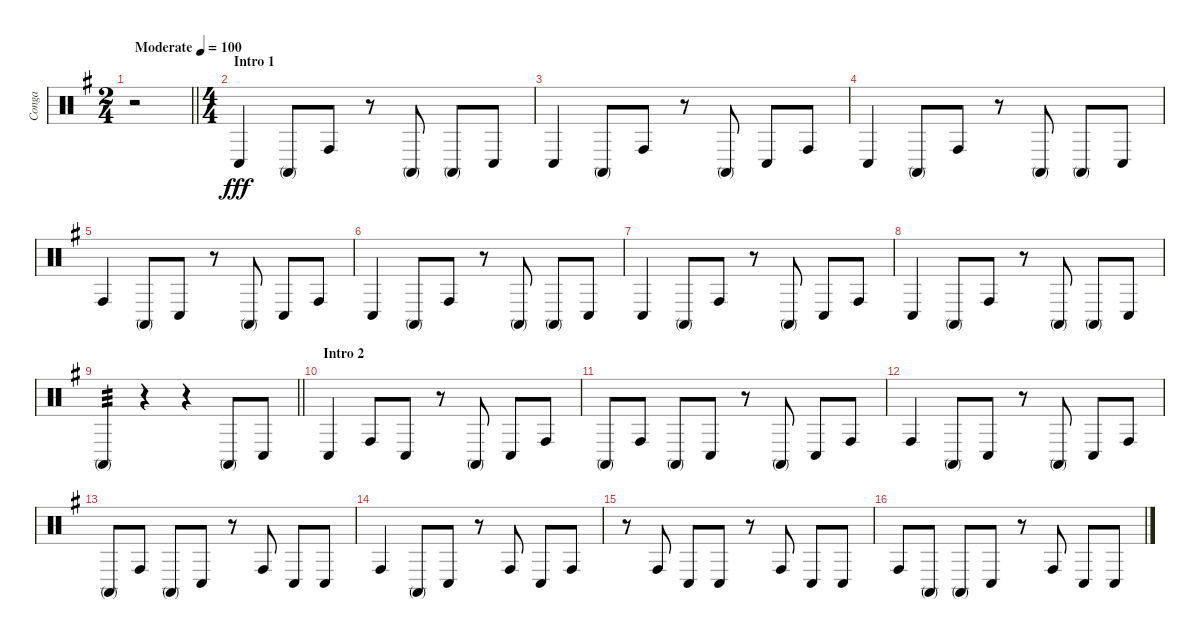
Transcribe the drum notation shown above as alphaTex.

\track ("Conga" "Conga") {instrument percussion}
\staff {score}
\articulation defaults
\ts (2 4)
\tempo (100 "Moderate")
\clef neutral
\barLineRight lightlight
\ks g
r.2{dy fff} |
\ts (4 4)
\section ("" "Intro 1")
"Conga low (hit)".4 "Conga high (mute)".8 "Conga high (hit)".8 r.8 "Conga high (mute)".8 "Conga high (mute)".8 "Conga low (hit)".8 |
"Conga low (hit)".4 "Conga high (mute)".8 "Conga high (hit)".8 r.8 "Conga high (mute)".8 "Conga low (hit)".8 "Conga high (hit)".8 |
"Conga low (hit)".4 "Conga high (mute)".8 "Conga high (hit)".8 r.8 "Conga high (mute)".8 "Conga high (mute)".8 "Conga low (hit)".8 |
"Conga high (hit)".4 "Conga high (mute)".8 "Conga low (hit)".8 r.8 "Conga high (mute)".8 "Conga low (hit)".8 "Conga high (hit)".8 |
"Conga low (hit)".4 "Conga high (mute)".8 "Conga high (hit)".8 r.8 "Conga high (mute)".8 "Conga high (mute)".8 "Conga low (hit)".8 |
"Conga low (hit)".4 "Conga high (mute)".8 "Conga high (hit)".8 r.8 "Conga high (mute)".8 "Conga low (hit)".8 "Conga high (hit)".8 |
"Conga low (hit)".4 "Conga high (mute)".8 "Conga high (hit)".8 r.8 "Conga high (mute)".8 "Conga high (mute)".8 "Conga low (hit)".8 |
\barLineRight lightlight "Conga high (mute)".4{tp 3}
r.4 r.4 "Conga high (mute)".8 "Conga low (hit)".8 |
\section ("" "Intro 2")
"Conga low (hit)".4 "Conga high (hit)".8 "Conga low (hit)".8 r.8 "Conga high (mute)".8 "Conga low (hit)".8 "Conga high (hit)".8 |
"Conga high (mute)".8 "Conga high (hit)".8 "Conga high (mute)".8 "Conga low (hit)".8 r.8 "Conga high (mute)".8 "Conga low (hit)".8 "Conga high (hit)".8 |
"Conga high (hit)".4 "Conga high (mute)".8 "Conga low (hit)".8 r.8 "Conga high (mute)".8 "Conga low (hit)".8 "Conga high (hit)".8 |
"Conga high (mute)".8 "Conga high (hit)".8 "Conga high (mute)".8 "Conga low (hit)".8 r.8 "Conga high (hit)".8 "Conga low (hit)".8 "Conga low (hit)".8 |
"Conga high (hit)".4 "Conga high (mute)".8 "Conga low (hit)".8 r.8 "Conga high (hit)".8 "Conga low (hit)".8 "Conga high (hit)".8 |
r.8 "Conga high (hit)".8 "Conga low (hit)".8 "Conga low (hit)".8 r.8 "Conga high (hit)".8 "Conga low (hit)".8 "Conga low (hit)".8 |
"Conga high (hit)".8 "Conga high (mute)".8 "Conga high (mute)".8 "Conga low (hit)".8 r.8 "Conga high (hit)".8 "Conga low (hit)".8 "Conga low (hit)".8
